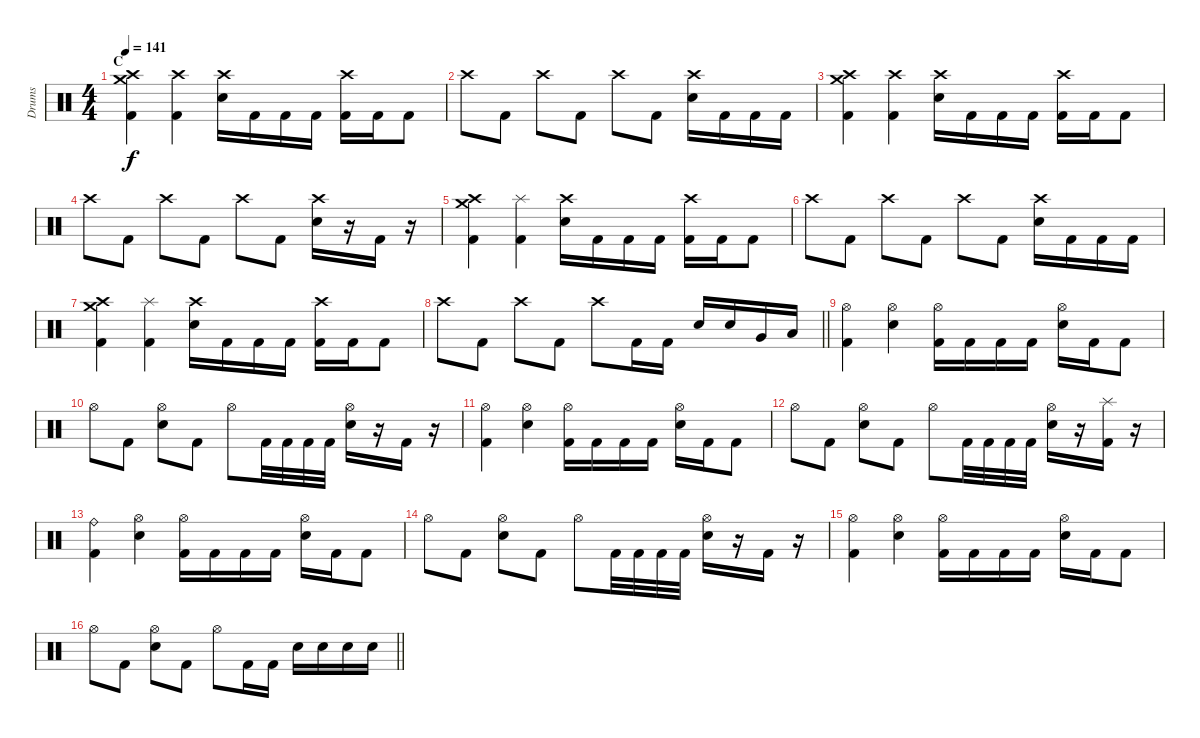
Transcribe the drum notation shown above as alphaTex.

\track ("Drums" "Drums") {instrument percussion}
\staff {score}
\articulation defaults
\ts (4 4)
\section ("" "C")
\tempo 141
\clef neutral
\ks c
("Crash medium (hit)" "Crash high (hit)" "Kick (hit) 2").4{dy f} ("Crash high (hit)" "Kick (hit) 2").4 ("Crash high (hit)" "Electric Snare (hit)").16 "Kick (hit) 2".16 "Kick (hit) 2".16 "Kick (hit) 2".16 ("Crash high (hit)" "Kick (hit) 2").16 "Kick (hit) 2".16 "Kick (hit) 2".8 |
"Crash high (hit)".8 "Kick (hit) 2".8 "Crash high (hit)".8 "Kick (hit) 2".8 "Crash high (hit)".8 "Kick (hit) 2".8 ("Crash high (hit)" "Electric Snare (hit)").16 "Kick (hit) 2".16 "Kick (hit) 2".16 "Kick (hit) 2".16 |
("Crash high (hit)" "Crash medium (hit)" "Kick (hit) 2").4 ("Crash high (hit)" "Kick (hit) 2").4 ("Crash high (hit)" "Electric Snare (hit)").16 "Kick (hit) 2".16 "Kick (hit) 2".16 "Kick (hit) 2".16 ("Crash high (hit)" "Kick (hit) 2").16 "Kick (hit) 2".16 "Kick (hit) 2".8 |
"Crash high (hit)".8 "Kick (hit) 2".8 "Crash high (hit)".8 "Kick (hit) 2".8 "Crash high (hit)".8 "Kick (hit) 2".8 ("Crash high (hit)" "Electric Snare (hit)").16 r.16 "Kick (hit) 2".16 r.16 |
("Crash medium (hit)" "Crash high (hit)" "Kick (hit) 2").4 ("Splash (hit)" "Kick (hit) 2").4 ("Crash high (hit)" "Electric Snare (hit)").16 "Kick (hit) 2".16 "Kick (hit) 2".16 "Kick (hit) 2".16 ("Crash high (hit)" "Kick (hit) 2").16 "Kick (hit) 2".16 "Kick (hit) 2".8 |
"Crash high (hit)".8 "Kick (hit) 2".8 "Crash high (hit)".8 "Kick (hit) 2".8 "Crash high (hit)".8 "Kick (hit) 2".8 ("Crash high (hit)" "Electric Snare (hit)").16 "Kick (hit) 2".16 "Kick (hit) 2".16 "Kick (hit) 2".16 |
("Crash medium (hit)" "Crash high (hit)" "Kick (hit) 2").4 ("Splash (hit)" "Kick (hit) 2").4 ("Crash high (hit)" "Electric Snare (hit)").16 "Kick (hit) 2".16 "Kick (hit) 2".16 "Kick (hit) 2".16 ("Crash high (hit)" "Kick (hit) 2").16 "Kick (hit) 2".16 "Kick (hit) 2".8 |
\barLineRight lightlight "Crash high (hit)".8 "Kick (hit) 2".8 "Crash high (hit)".8 "Kick (hit) 2".8 "Crash high (hit)".8 "Kick (hit) 2".16 "Kick (hit) 2".16 "Electric Snare (hit)".16 "Electric Snare (hit)".16 "Very Low Tom (hit)".16 "Low Floor Tom (hit)".16
|
\section ("" "")
("Hi-Hat (open)" "Kick (hit) 2").4 ("Hi-Hat (open)" "Electric Snare (hit)").4 ("Hi-Hat (open)" "Kick (hit) 2").16 "Kick (hit) 2".16 "Kick (hit) 2".16 "Kick (hit) 2".16 ("Hi-Hat (open)" "Electric Snare (hit)").16 "Kick (hit) 2".16 "Kick (hit) 2".8 |
"Hi-Hat (open)".8 "Kick (hit) 2".8 ("Hi-Hat (open)" "Electric Snare (hit)").8 "Kick (hit) 2".8 "Hi-Hat (open)".8 "Kick (hit) 2".32 "Kick (hit) 2".32 "Kick (hit) 2".32 "Kick (hit) 2".32 ("Hi-Hat (open)" "Electric Snare (hit)").16 r.16 "Kick (hit) 2".16 r.16 |
("Hi-Hat (open)" "Kick (hit) 2").4 ("Hi-Hat (open)" "Electric Snare (hit)").4 ("Hi-Hat (open)" "Kick (hit) 2").16 "Kick (hit) 2".16 "Kick (hit) 2".16 "Kick (hit) 2".16 ("Hi-Hat (open)" "Electric Snare (hit)").16 "Kick (hit) 2".16 "Kick (hit) 2".8 |
"Hi-Hat (open)".8 "Kick (hit) 2".8 ("Hi-Hat (open)" "Electric Snare (hit)").8 "Kick (hit) 2".8 "Hi-Hat (open)".8 "Kick (hit) 2".32 "Kick (hit) 2".32 "Kick (hit) 2".32 "Kick (hit) 2".32 ("Hi-Hat (open)" "Electric Snare (hit)").16 r.16 ("Splash (hit)" "Kick (hit) 2").16 r.16 |
("Ride (bell)" "Kick (hit) 2").4 ("Hi-Hat (open)" "Electric Snare (hit)").4 ("Hi-Hat (open)" "Kick (hit) 2").16 "Kick (hit) 2".16 "Kick (hit) 2".16 "Kick (hit) 2".16 ("Hi-Hat (open)" "Electric Snare (hit)").16 "Kick (hit) 2".16 "Kick (hit) 2".8 |
"Hi-Hat (open)".8 "Kick (hit) 2".8 ("Hi-Hat (open)" "Electric Snare (hit)").8 "Kick (hit) 2".8 "Hi-Hat (open)".8 "Kick (hit) 2".32 "Kick (hit) 2".32 "Kick (hit) 2".32 "Kick (hit) 2".32 ("Hi-Hat (open)" "Electric Snare (hit)").16 r.16 "Kick (hit) 2".16 r.16 |
("Hi-Hat (open)" "Kick (hit) 2").4 ("Hi-Hat (open)" "Electric Snare (hit)").4 ("Hi-Hat (open)" "Kick (hit) 2").16 "Kick (hit) 2".16 "Kick (hit) 2".16 "Kick (hit) 2".16 ("Hi-Hat (open)" "Electric Snare (hit)").16 "Kick (hit) 2".16 "Kick (hit) 2".8 |
\barLineRight lightlight "Hi-Hat (open)".8 "Kick (hit) 2".8
("Hi-Hat (open)" "Electric Snare (hit)").8 "Kick (hit) 2".8 "Hi-Hat (open)".8 "Kick (hit) 2".16 "Kick (hit) 2".16 "Electric Snare (hit)".16 "Electric Snare (hit)".16 "Electric Snare (hit)".16 "Electric Snare (hit)".16
